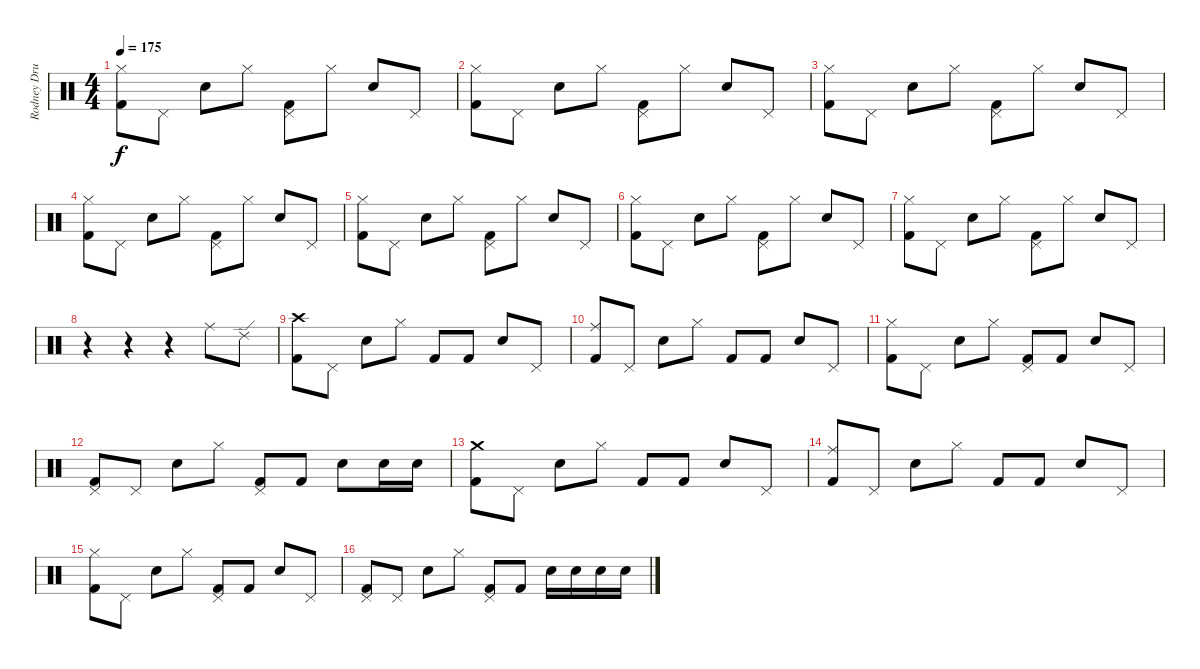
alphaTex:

\track ("Rodney Drums" "Rodney Dru") {instrument percussion}
\staff {score}
\articulation defaults
\ts (4 4)
\tempo 175
\clef neutral
\ks c
("Hi-Hat (closed)" "Kick (hit) 2").8{dy f} "Pedal Hi-Hat (hit)".8 "Snare (hit) 2".8 "Hi-Hat (closed)".8 ("Pedal Hi-Hat (hit)" "Kick (hit) 2").8 "Hi-Hat (closed)".8 "Snare (hit) 2".8 "Pedal Hi-Hat (hit)".8 |
("Hi-Hat (closed)" "Kick (hit) 2").8 "Pedal Hi-Hat (hit)".8 "Snare (hit) 2".8 "Hi-Hat (closed)".8 ("Pedal Hi-Hat (hit)" "Kick (hit) 2").8 "Hi-Hat (closed)".8 "Snare (hit) 2".8 "Pedal Hi-Hat (hit)".8 |
("Hi-Hat (closed)" "Kick (hit) 2").8 "Pedal Hi-Hat (hit)".8 "Snare (hit) 2".8 "Hi-Hat (closed)".8 ("Pedal Hi-Hat (hit)" "Kick (hit) 2").8 "Hi-Hat (closed)".8 "Snare (hit) 2".8 "Pedal Hi-Hat (hit)".8 |
("Hi-Hat (closed)" "Kick (hit) 2").8 "Pedal Hi-Hat (hit)".8 "Snare (hit) 2".8 "Hi-Hat (closed)".8 ("Pedal Hi-Hat (hit)" "Kick (hit) 2").8 "Hi-Hat (closed)".8 "Snare (hit) 2".8 "Pedal Hi-Hat (hit)".8 |
("Hi-Hat (closed)" "Kick (hit) 2").8 "Pedal Hi-Hat (hit)".8 "Snare (hit) 2".8 "Hi-Hat (closed)".8 ("Pedal Hi-Hat (hit)" "Kick (hit) 2").8 "Hi-Hat (closed)".8 "Snare (hit) 2".8 "Pedal Hi-Hat (hit)".8 |
("Hi-Hat (closed)" "Kick (hit) 2").8 "Pedal Hi-Hat (hit)".8 "Snare (hit) 2".8 "Hi-Hat (closed)".8 ("Pedal Hi-Hat (hit)" "Kick (hit) 2").8 "Hi-Hat (closed)".8 "Snare (hit) 2".8 "Pedal Hi-Hat (hit)".8 |
("Hi-Hat (closed)" "Kick (hit) 2").8 "Pedal Hi-Hat (hit)".8 "Snare (hit) 2".8 "Hi-Hat (closed)".8 ("Pedal Hi-Hat (hit)" "Kick (hit) 2").8 "Hi-Hat (closed)".8 "Snare (hit) 2".8 "Pedal Hi-Hat (hit)".8 |
r.4 r.4 r.4 "Ride (middle)".8 "Ride (edge) 2".8 |
("Crash high (hit)" "Kick (hit) 2").8 "Pedal Hi-Hat (hit)".8 "Electric Snare (hit)".8 "Hi-Hat (closed)".8 "Kick (hit) 2".8 "Kick (hit) 2".8 "Electric Snare (hit)".8 "Pedal Hi-Hat (hit)".8 |
("Ride (middle)" "Kick (hit) 2").8 "Pedal Hi-Hat (hit)".8 "Electric Snare (hit)".8 "Hi-Hat (closed)".8 "Kick (hit) 2".8 "Kick (hit) 2".8 "Electric Snare (hit)".8 "Pedal Hi-Hat (hit)".8 |
("Hi-Hat (closed)" "Kick (hit) 2").8 "Pedal Hi-Hat (hit)".8 "Electric Snare (hit)".8 "Hi-Hat (closed)".8 ("Pedal Hi-Hat (hit)" "Kick (hit) 2").8 "Kick (hit) 2".8 "Electric Snare (hit)".8 "Pedal Hi-Hat (hit)".8 |
("Pedal Hi-Hat (hit)" "Kick (hit) 2").8 "Pedal Hi-Hat (hit)".8 "Electric Snare (hit)".8 "Hi-Hat (closed)".8 ("Pedal Hi-Hat (hit)" "Kick (hit) 2").8 "Kick (hit) 2".8 "Electric Snare (hit)".8 "Electric Snare (hit)".16 "Electric Snare (hit)".16 |
("Crash medium (hit)" "Kick (hit) 2").8 "Pedal Hi-Hat (hit)".8 "Electric Snare (hit)".8 "Hi-Hat (closed)".8 "Kick (hit) 2".8 "Kick (hit) 2".8 "Electric Snare (hit)".8 "Pedal Hi-Hat (hit)".8 |
("Ride (middle)" "Kick (hit) 2").8 "Pedal Hi-Hat (hit)".8 "Electric Snare (hit)".8 "Hi-Hat (closed)".8 "Kick (hit) 2".8 "Kick (hit) 2".8 "Electric Snare (hit)".8 "Pedal Hi-Hat (hit)".8 |
("Hi-Hat (closed)" "Kick (hit) 2").8 "Pedal Hi-Hat (hit)".8 "Electric Snare (hit)".8 "Hi-Hat (closed)".8 ("Pedal Hi-Hat (hit)" "Kick (hit) 2").8 "Kick (hit) 2".8 "Electric Snare (hit)".8 "Pedal Hi-Hat (hit)".8 |
("Pedal Hi-Hat (hit)" "Kick (hit) 2").8 "Pedal Hi-Hat (hit)".8 "Electric Snare (hit)".8 "Hi-Hat (closed)".8 ("Pedal Hi-Hat (hit)" "Kick (hit) 2").8 "Kick (hit) 2".8 "Electric Snare (hit)".16 "Electric Snare (hit)".16 "Electric Snare (hit)".16 "Electric Snare (hit)".16
